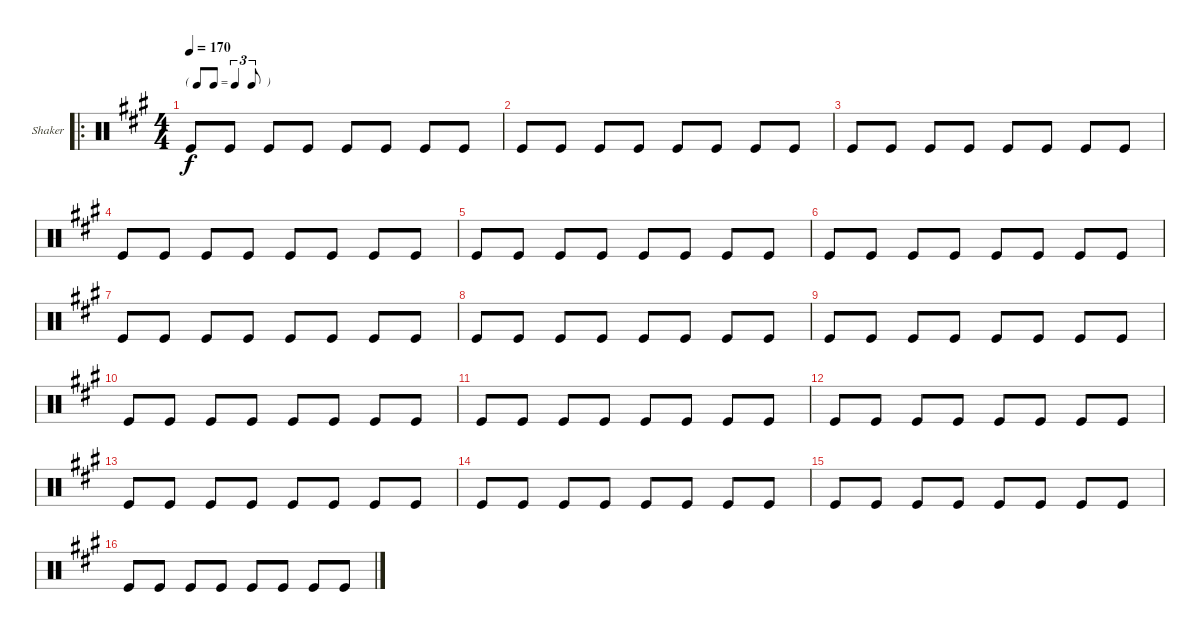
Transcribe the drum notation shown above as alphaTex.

\bracketExtendMode groupsimilarinstruments
\firstSystemTrackNameOrientation horizontal
\otherSystemsTrackNameOrientation horizontal
\track ("Shaker" "Shaker") {instrument percussion}
\staff {score}
\articulation defaults
\ro
\ts (4 4)
\tf triplet8th
\tempo 170
\clef neutral
\scale
0.377049
\ks a "Kick (hit)".8{dy f} "Kick (hit)".8 "Kick (hit)".8 "Kick (hit)".8 "Kick (hit)".8 "Kick (hit)".8 "Kick (hit)".8 "Kick (hit)".8
|
\scale
0.333333 "Kick (hit)".8 "Kick (hit)".8 "Kick (hit)".8 "Kick (hit)".8 "Kick (hit)".8 "Kick (hit)".8 "Kick (hit)".8 "Kick (hit)".8 |
\scale
0.333333 "Kick (hit)".8 "Kick (hit)".8 "Kick (hit)".8 "Kick (hit)".8 "Kick (hit)".8 "Kick (hit)".8 "Kick (hit)".8 "Kick (hit)".8 |
\scale
0.333333 "Kick (hit)".8 "Kick (hit)".8 "Kick (hit)".8 "Kick (hit)".8 "Kick (hit)".8 "Kick (hit)".8 "Kick (hit)".8 "Kick (hit)".8 |
\scale
0.333333 "Kick (hit)".8 "Kick (hit)".8 "Kick (hit)".8 "Kick (hit)".8 "Kick (hit)".8 "Kick (hit)".8 "Kick (hit)".8 "Kick (hit)".8 |
\scale
0.333333 "Kick (hit)".8 "Kick (hit)".8 "Kick (hit)".8 "Kick (hit)".8 "Kick (hit)".8 "Kick (hit)".8 "Kick (hit)".8 "Kick (hit)".8 |
\scale
0.333333 "Kick (hit)".8 "Kick (hit)".8 "Kick (hit)".8 "Kick (hit)".8 "Kick (hit)".8 "Kick (hit)".8 "Kick (hit)".8 "Kick (hit)".8 |
\scale
0.333333 "Kick (hit)".8 "Kick (hit)".8 "Kick (hit)".8 "Kick (hit)".8 "Kick (hit)".8 "Kick (hit)".8 "Kick (hit)".8 "Kick (hit)".8 |
\scale
0.333333 "Kick (hit)".8 "Kick (hit)".8 "Kick (hit)".8 "Kick (hit)".8 "Kick (hit)".8 "Kick (hit)".8 "Kick (hit)".8 "Kick (hit)".8 |
\scale
0.333333 "Kick (hit)".8 "Kick (hit)".8 "Kick (hit)".8 "Kick (hit)".8 "Kick (hit)".8 "Kick (hit)".8 "Kick (hit)".8 "Kick (hit)".8 |
\scale
0.333333 "Kick (hit)".8 "Kick (hit)".8 "Kick (hit)".8 "Kick (hit)".8 "Kick (hit)".8 "Kick (hit)".8 "Kick (hit)".8 "Kick (hit)".8 |
\scale
0.333333 "Kick (hit)".8 "Kick (hit)".8 "Kick (hit)".8 "Kick (hit)".8 "Kick (hit)".8 "Kick (hit)".8 "Kick (hit)".8 "Kick (hit)".8 |
\scale
0.333333 "Kick (hit)".8 "Kick (hit)".8 "Kick (hit)".8 "Kick (hit)".8 "Kick (hit)".8 "Kick (hit)".8 "Kick (hit)".8 "Kick (hit)".8 |
\scale
0.333333 "Kick (hit)".8 "Kick (hit)".8 "Kick (hit)".8 "Kick (hit)".8 "Kick (hit)".8 "Kick (hit)".8 "Kick (hit)".8 "Kick (hit)".8 |
\scale
0.333333 "Kick (hit)".8 "Kick (hit)".8 "Kick (hit)".8 "Kick (hit)".8 "Kick (hit)".8 "Kick (hit)".8 "Kick (hit)".8 "Kick (hit)".8 |
\scale
0.333333 "Kick (hit)".8 "Kick (hit)".8 "Kick (hit)".8 "Kick (hit)".8 "Kick (hit)".8 "Kick (hit)".8 "Kick (hit)".8 "Kick (hit)".8
